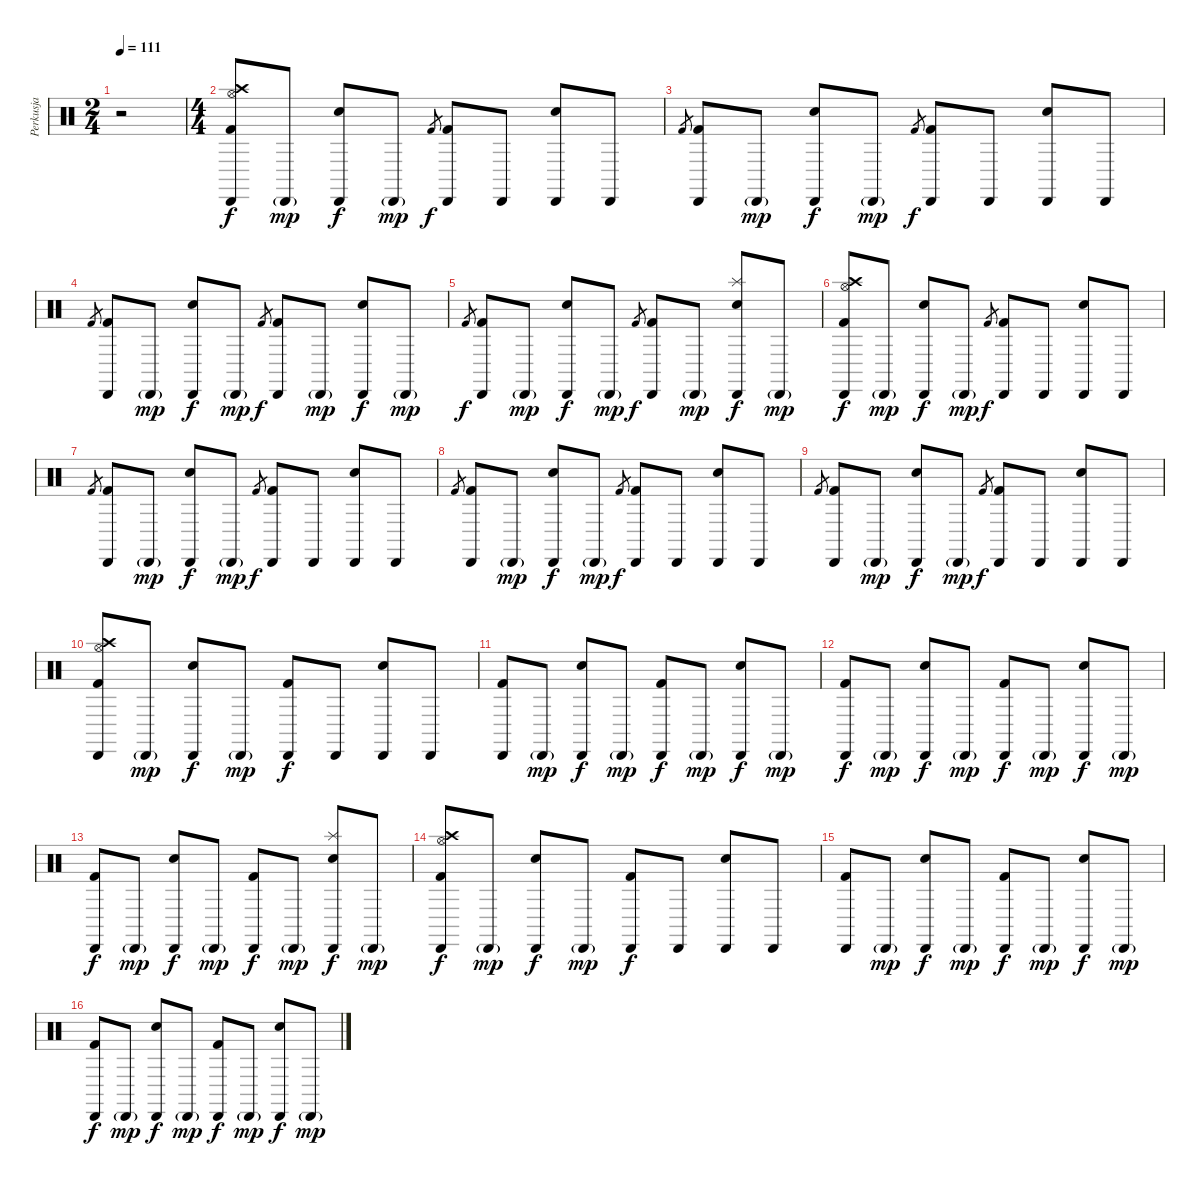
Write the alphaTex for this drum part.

\track ("Perkusja" "Perkusja") {instrument percussion}
\staff {score}
\articulation defaults
\ts (2 4)
\tempo 111
\clef neutral
\ks c
r.2{dy f} |
\ts (4 4)
("Cabasa (hit)" "Kick (hit) 2" "Hi-Hat (open)" "Crash high (hit)").8 "Cabasa (hit)"{g}.8{dy mp} ("Cabasa (hit)" "Snare (hit) 2").8{dy f} "Cabasa (hit)"{g}.8{dy mp} "Kick (hit) 2".8{gr dy f} ("Cabasa (hit)" "Kick (hit) 2").8 "Cabasa (hit)".8 ("Cabasa (hit)" "Snare (hit) 2").8 "Cabasa (hit)".8 |
"Kick (hit) 2".8{gr} ("Cabasa (hit)" "Kick (hit) 2").8 "Cabasa (hit)"{g}.8{dy mp} ("Cabasa (hit)" "Snare (hit) 2").8{dy f} "Cabasa (hit)"{g}.8{dy mp} "Kick (hit) 2".8{gr dy f} ("Cabasa (hit)" "Kick (hit) 2").8 "Cabasa (hit)".8 ("Cabasa (hit)" "Snare (hit) 2").8 "Cabasa (hit)".8 |
"Kick (hit) 2".8{gr} ("Cabasa (hit)" "Kick (hit) 2").8 "Cabasa (hit)"{g}.8{dy mp} ("Cabasa (hit)" "Snare (hit) 2").8{dy f} "Cabasa (hit)"{g}.8{dy mp} "Kick (hit) 2".8{gr dy f} ("Cabasa (hit)" "Kick (hit) 2").8 "Cabasa (hit)"{g}.8{dy mp} ("Cabasa (hit)" "Snare (hit) 2").8{dy f} "Cabasa (hit)"{g}.8{dy mp} |
"Kick (hit) 2".8{gr dy f} ("Cabasa (hit)" "Kick (hit) 2").8 "Cabasa (hit)"{g}.8{dy mp} ("Cabasa (hit)" "Snare (hit) 2").8{dy f} "Cabasa (hit)"{g}.8{dy mp} "Kick (hit) 2".8{gr dy f} ("Cabasa (hit)" "Kick (hit) 2").8 "Cabasa (hit)"{g}.8{dy mp} ("Cabasa (hit)" "Snare (hit) 2" "Splash (hit)").8{dy f} "Cabasa (hit)"{g}.8{dy mp} |
("Cabasa (hit)" "Kick (hit) 2" "Hi-Hat (open)" "Crash high (hit)").8{dy f} "Cabasa (hit)"{g}.8{dy mp} ("Cabasa (hit)" "Snare (hit) 2").8{dy f} "Cabasa (hit)"{g}.8{dy mp} "Kick (hit) 2".8{gr dy f} ("Cabasa (hit)" "Kick (hit) 2").8 "Cabasa (hit)".8 ("Cabasa (hit)" "Snare (hit) 2").8 "Cabasa (hit)".8 |
"Kick (hit) 2".8{gr} ("Cabasa (hit)" "Kick (hit) 2").8 "Cabasa (hit)"{g}.8{dy mp} ("Cabasa (hit)" "Snare (hit) 2").8{dy f} "Cabasa (hit)"{g}.8{dy mp} "Kick (hit) 2".8{gr dy f} ("Cabasa (hit)" "Kick (hit) 2").8 "Cabasa (hit)".8 ("Cabasa (hit)" "Snare (hit) 2").8 "Cabasa (hit)".8 |
"Kick (hit) 2".8{gr} ("Cabasa (hit)" "Kick (hit) 2").8 "Cabasa (hit)"{g}.8{dy mp} ("Cabasa (hit)" "Snare (hit) 2").8{dy f} "Cabasa (hit)"{g}.8{dy mp} "Kick (hit) 2".8{gr dy f} ("Cabasa (hit)" "Kick (hit) 2").8 "Cabasa (hit)".8 ("Cabasa (hit)" "Snare (hit) 2").8 "Cabasa (hit)".8 |
"Kick (hit) 2".8{gr} ("Cabasa (hit)" "Kick (hit) 2").8 "Cabasa (hit)"{g}.8{dy mp} ("Cabasa (hit)" "Snare (hit) 2").8{dy f} "Cabasa (hit)"{g}.8{dy mp} "Kick (hit) 2".8{gr dy f} ("Cabasa (hit)" "Kick (hit) 2").8 "Cabasa (hit)".8 ("Cabasa (hit)" "Snare (hit) 2").8 "Cabasa (hit)".8 |
("Cabasa (hit)" "Kick (hit) 2" "Hi-Hat (open)" "Crash high (hit)").8 "Cabasa (hit)"{g}.8{dy mp} ("Cabasa (hit)" "Snare (hit) 2").8{dy f} "Cabasa (hit)"{g}.8{dy mp} ("Cabasa (hit)" "Kick (hit) 2").8{dy f} "Cabasa (hit)".8 ("Cabasa (hit)" "Snare (hit) 2").8 "Cabasa (hit)".8 |
("Cabasa (hit)" "Kick (hit) 2").8 "Cabasa (hit)"{g}.8{dy mp} ("Cabasa (hit)" "Snare (hit) 2").8{dy f} "Cabasa (hit)"{g}.8{dy mp} ("Cabasa (hit)" "Kick (hit) 2").8{dy f} "Cabasa (hit)"{g}.8{dy mp} ("Cabasa (hit)" "Snare (hit) 2").8{dy f} "Cabasa (hit)"{g}.8{dy mp} |
("Cabasa (hit)" "Kick (hit) 2").8{dy f} "Cabasa (hit)"{g}.8{dy mp} ("Cabasa (hit)" "Snare (hit) 2").8{dy f} "Cabasa (hit)"{g}.8{dy mp} ("Cabasa (hit)" "Kick (hit) 2").8{dy f} "Cabasa (hit)"{g}.8{dy mp} ("Cabasa (hit)" "Snare (hit) 2").8{dy f} "Cabasa (hit)"{g}.8{dy mp} |
("Cabasa (hit)" "Kick (hit) 2").8{dy f} "Cabasa (hit)"{g}.8{dy mp} ("Cabasa (hit)" "Snare (hit) 2").8{dy f} "Cabasa (hit)"{g}.8{dy mp} ("Cabasa (hit)" "Kick (hit) 2").8{dy f} "Cabasa (hit)"{g}.8{dy mp} ("Cabasa (hit)" "Snare (hit) 2" "Splash (hit)").8{dy f} "Cabasa (hit)"{g}.8{dy mp} |
("Cabasa (hit)" "Kick (hit) 2" "Hi-Hat (open)" "Crash high (hit)").8{dy f} "Cabasa (hit)"{g}.8{dy mp} ("Cabasa (hit)" "Snare (hit) 2").8{dy f} "Cabasa (hit)"{g}.8{dy mp} ("Cabasa (hit)" "Kick (hit) 2").8{dy f} "Cabasa (hit)".8 ("Cabasa (hit)" "Snare (hit) 2").8 "Cabasa (hit)".8 |
("Cabasa (hit)" "Kick (hit) 2").8 "Cabasa (hit)"{g}.8{dy mp} ("Cabasa (hit)" "Snare (hit) 2").8{dy f} "Cabasa (hit)"{g}.8{dy mp} ("Cabasa (hit)" "Kick (hit) 2").8{dy f} "Cabasa (hit)"{g}.8{dy mp} ("Cabasa (hit)" "Snare (hit) 2").8{dy f} "Cabasa (hit)"{g}.8{dy mp} |
("Cabasa (hit)" "Kick (hit) 2").8{dy f} "Cabasa (hit)"{g}.8{dy mp} ("Cabasa (hit)" "Snare (hit) 2").8{dy f} "Cabasa (hit)"{g}.8{dy mp} ("Cabasa (hit)" "Kick (hit) 2").8{dy f} "Cabasa (hit)"{g}.8{dy mp} ("Cabasa (hit)" "Snare (hit) 2").8{dy f} "Cabasa (hit)"{g}.8{dy mp}
